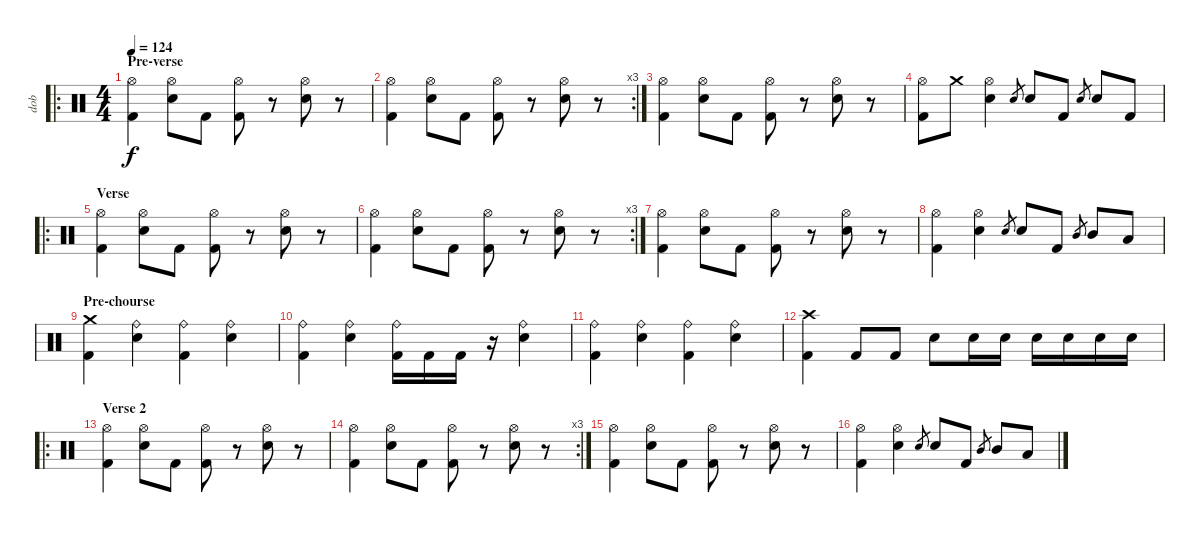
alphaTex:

\track ("dob" "dob") {instrument percussion}
\staff {score}
\articulation defaults
\ro
\ts (4 4)
\section ("" "Pre-verse")
\tempo 124
\clef neutral
\ks c
("Hi-Hat (open)" "Kick (hit) 2").4{dy f} ("Hi-Hat (open)" "Electric Snare (hit)").8 "Kick (hit) 2".8 ("Hi-Hat (open)" "Kick (hit) 2").8 r.8 ("Hi-Hat (open)" "Electric Snare (hit)").8 r.8 |
\rc 3
("Hi-Hat (open)" "Kick (hit) 2").4 ("Hi-Hat (open)" "Electric Snare (hit)").8 "Kick (hit) 2".8 ("Hi-Hat (open)" "Kick (hit) 2").8 r.8 ("Hi-Hat (open)" "Electric Snare (hit)").8 r.8 |
("Hi-Hat (open)" "Kick (hit) 2").4 ("Hi-Hat (open)" "Electric Snare (hit)").8 "Kick (hit) 2".8 ("Hi-Hat (open)" "Kick (hit) 2").8 r.8 ("Hi-Hat (open)" "Electric Snare (hit)").8 r.8 |
("Hi-Hat (open)" "Kick (hit) 2").8 "Crash medium (hit)".8 ("Hi-Hat (open)" "Electric Snare (hit)").4 "Electric Snare (hit)".8{gr} "Electric Snare (hit)".8 "Kick (hit) 2".8 "Electric Snare (hit)".8{gr} "Electric Snare (hit)".8 "Kick (hit) 2".8 |
\ro
\section ("" "Verse")
("Hi-Hat (open)" "Kick (hit) 2").4 ("Hi-Hat (open)" "Electric Snare (hit)").8 "Kick (hit) 2".8 ("Hi-Hat (open)" "Kick (hit) 2").8 r.8 ("Hi-Hat (open)" "Electric Snare (hit)").8 r.8 |
\rc 3
("Hi-Hat (open)" "Kick (hit) 2").4 ("Hi-Hat (open)" "Electric Snare (hit)").8 "Kick (hit) 2".8 ("Hi-Hat (open)" "Kick (hit) 2").8 r.8 ("Hi-Hat (open)" "Electric Snare (hit)").8 r.8 |
("Hi-Hat (open)" "Kick (hit) 2").4 ("Hi-Hat (open)" "Electric Snare (hit)").8 "Kick (hit) 2".8 ("Hi-Hat (open)" "Kick (hit) 2").8 r.8 ("Hi-Hat (open)" "Electric Snare (hit)").8 r.8 |
("Hi-Hat (open)" "Kick (hit) 2").4 ("Hi-Hat (open)" "Electric Snare (hit)").4 "Electric Snare (hit)".8{gr} "Electric Snare (hit)".8 "Kick (hit) 2".8 "Mid Tom (hit)".8{gr} "Mid Tom (hit)".8 "Low Tom (hit)".8 |
\section ("" "Pre-chourse")
("Crash medium (hit)" "Kick (hit) 2").4 ("Ride (bell)" "Electric Snare (hit)").4 ("Ride (bell)" "Kick (hit) 2").4 ("Ride (bell)" "Electric Snare (hit)").4 |
("Ride (bell)" "Kick (hit) 2").4 ("Ride (bell)" "Electric Snare (hit)").4 ("Ride (bell)" "Kick (hit) 2").16 "Kick (hit) 2".16 "Kick (hit) 2".16 r.16 ("Ride (bell)" "Electric Snare (hit)").4 |
("Ride (bell)" "Kick (hit) 2").4 ("Ride (bell)" "Electric Snare (hit)").4 ("Ride (bell)" "Kick (hit) 2").4 ("Ride (bell)" "Electric Snare (hit)").4 |
("Crash high (hit)" "Kick (hit) 2").4 "Kick (hit) 2".8 "Kick (hit) 2".8 "Electric Snare (hit)".8 "Electric Snare (hit)".16 "Electric Snare (hit)".16 "Electric Snare (hit)".16 "Electric Snare (hit)".16 "Electric Snare (hit)".16 "Electric Snare (hit)".16 |
\ro
\section ("" "Verse 2")
("Hi-Hat (open)" "Kick (hit) 2").4 ("Hi-Hat (open)" "Electric Snare (hit)").8 "Kick (hit) 2".8 ("Hi-Hat (open)" "Kick (hit) 2").8 r.8 ("Hi-Hat (open)" "Electric Snare (hit)").8 r.8 |
\rc 3
("Hi-Hat (open)" "Kick (hit) 2").4 ("Hi-Hat (open)" "Electric Snare (hit)").8 "Kick (hit) 2".8 ("Hi-Hat (open)" "Kick (hit) 2").8 r.8 ("Hi-Hat (open)" "Electric Snare (hit)").8 r.8 |
("Hi-Hat (open)" "Kick (hit) 2").4 ("Hi-Hat (open)" "Electric Snare (hit)").8 "Kick (hit) 2".8 ("Hi-Hat (open)" "Kick (hit) 2").8 r.8 ("Hi-Hat (open)" "Electric Snare (hit)").8 r.8 |
("Hi-Hat (open)" "Kick (hit) 2").4 ("Hi-Hat (open)" "Electric Snare (hit)").4 "Electric Snare (hit)".8{gr} "Electric Snare (hit)".8 "Kick (hit) 2".8 "Mid Tom (hit)".8{gr} "Mid Tom (hit)".8 "Low Tom (hit)".8
